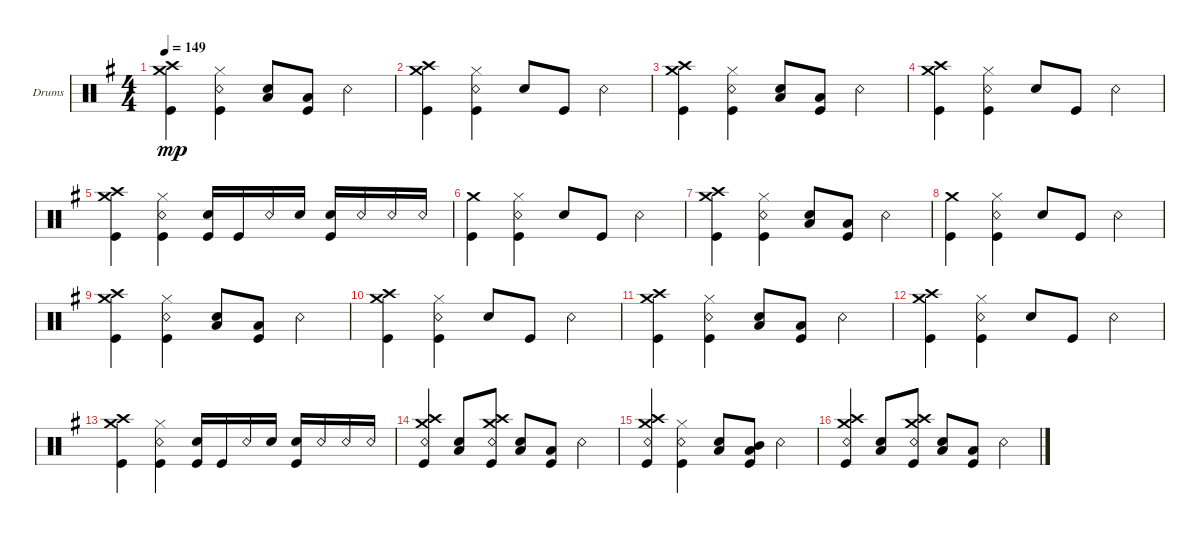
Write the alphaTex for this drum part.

\defaultSystemsLayout 4
\bracketExtendMode groupsimilarinstruments
\firstSystemTrackNameOrientation horizontal
\otherSystemsTrackNameOrientation horizontal
\track ("Drumkit" "Drums") {instrument percussion}
\staff {score}
\articulation defaults
\ts (4 4)
\tempo 149
\clef neutral
\ks eminor
("Kick (hit)" "Crash medium (hit)" "Crash high (hit)").4{dy mp} ("Snare (rim shot)" "Hi-Hat (closed)" "Kick (hit)").4 ("Snare (hit) 2" "Low Tom (hit)").8 ("Kick (hit)" "Low Tom (hit)").8 "Snare (rim shot)".4 |
("Kick (hit)" "Crash medium (hit)" "Crash high (hit)").4 ("Snare (rim shot)" "Hi-Hat (closed)" "Kick (hit)").4 "Snare (hit) 2".8 "Kick (hit)".8 "Snare (rim shot)".4 |
("Kick (hit)" "Crash medium (hit)" "Crash high (hit)").4 ("Snare (rim shot)" "Hi-Hat (closed)" "Kick (hit)").4 ("Snare (hit) 2" "Low Tom (hit)").8 ("Kick (hit)" "Low Tom (hit)").8 "Snare (rim shot)".4 |
("Kick (hit)" "Crash medium (hit)" "Crash high (hit)").4 ("Snare (rim shot)" "Hi-Hat (closed)" "Kick (hit)").4 "Snare (hit) 2".8 "Kick (hit)".8 "Snare (rim shot)".4 |
("Kick (hit)" "Crash medium (hit)" "Crash high (hit)").4 ("Snare (rim shot)" "Hi-Hat (closed)" "Kick (hit)").4 ("Snare (hit) 2" "Kick (hit)").16 "Kick (hit)".16 "Snare (rim shot)".16 "Snare (hit) 2".16 ("Snare (hit) 2" "Kick (hit)").16 "Snare (rim shot)".16 "Snare (rim shot)".16 "Snare (rim shot)".16 |
("Kick (hit)" "Crash medium (hit)").4 ("Snare (rim shot)" "Hi-Hat (closed)" "Kick (hit)").4 "Snare (hit) 2".8 "Kick (hit)".8 "Snare (rim shot)".4 |
("Kick (hit)" "Crash medium (hit)" "Crash high (hit)").4 ("Snare (rim shot)" "Hi-Hat (closed)" "Kick (hit)").4 ("Snare (hit) 2" "Low Tom (hit)").8 ("Kick (hit)" "Low Tom (hit)").8 "Snare (rim shot)".4 |
("Kick (hit)" "Crash medium (hit)").4 ("Snare (rim shot)" "Hi-Hat (closed)" "Kick (hit)").4 "Snare (hit) 2".8 "Kick (hit)".8 "Snare (rim shot)".4 |
("Kick (hit)" "Crash medium (hit)" "Crash high (hit)").4 ("Snare (rim shot)" "Hi-Hat (closed)" "Kick (hit)").4 ("Snare (hit) 2" "Low Tom (hit)").8 ("Kick (hit)" "Low Tom (hit)").8 "Snare (rim shot)".4 |
("Kick (hit)" "Crash medium (hit)" "Crash high (hit)").4 ("Snare (rim shot)" "Hi-Hat (closed)" "Kick (hit)").4 "Snare (hit) 2".8 "Kick (hit)".8 "Snare (rim shot)".4 |
("Kick (hit)" "Crash medium (hit)" "Crash high (hit)").4 ("Snare (rim shot)" "Hi-Hat (closed)" "Kick (hit)").4 ("Snare (hit) 2" "Low Tom (hit)").8 ("Kick (hit)" "Low Tom (hit)").8 "Snare (rim shot)".4 |
("Kick (hit)" "Crash medium (hit)" "Crash high (hit)").4 ("Snare (rim shot)" "Hi-Hat (closed)" "Kick (hit)").4 "Snare (hit) 2".8 "Kick (hit)".8 "Snare (rim shot)".4 |
("Kick (hit)" "Crash medium (hit)" "Crash high (hit)").4 ("Snare (rim shot)" "Hi-Hat (closed)" "Kick (hit)").4 ("Snare (hit) 2" "Kick (hit)").16 "Kick (hit)".16 "Snare (rim shot)".16 "Snare (hit) 2".16 ("Snare (hit) 2" "Kick (hit)").16 "Snare (rim shot)".16 "Snare (rim shot)".16 "Snare (rim shot)".16 |
("Kick (hit)" "Crash high (hit)" "Crash medium (hit)" "Snare (rim shot)").4 ("Low Tom (hit)" "Snare (hit) 2").8 ("Kick (hit)" "Snare (rim shot)" "Crash medium (hit)" "Crash high (hit)").8 ("Snare (hit) 2" "Low Tom (hit)").8 ("Kick (hit)" "Low Tom (hit)").8 "Snare (rim shot)".4 |
("Kick (hit)" "Crash high (hit)" "Crash medium (hit)" "Snare (rim shot)").4 ("Snare (rim shot)" "Hi-Hat (closed)" "Kick (hit)").4 ("Snare (hit) 2" "Low Tom (hit)").8 ("Kick (hit)" "Low Tom (hit)" "Mid Tom (hit)").8 "Snare (rim shot)".4 |
("Kick (hit)" "Crash high (hit)" "Crash medium (hit)" "Snare (rim shot)").4 ("Low Tom (hit)" "Snare (hit) 2").8 ("Kick (hit)" "Snare (rim shot)" "Crash medium (hit)" "Crash high (hit)").8 ("Snare (hit) 2" "Low Tom (hit)").8 ("Kick (hit)" "Low Tom (hit)").8 "Snare (rim shot)".4
